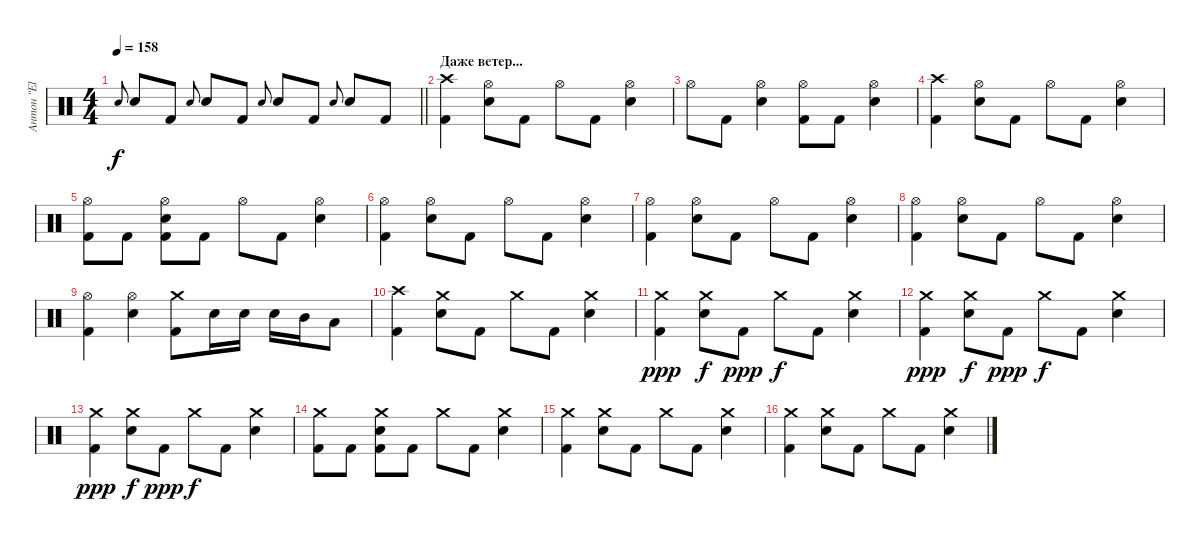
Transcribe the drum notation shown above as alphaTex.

\track ("Антон \"El Bastardo\" Смольянин" "Антон \"El ") {instrument percussion}
\staff {score}
\articulation defaults
\ts (4 4)
\tempo 158
\clef neutral
\barLineRight lightlight
\ks c "Electric Snare (hit)".8{gr onbeat dy f} "Electric Snare (hit)".8 "Kick (hit) 2".8 "Electric Snare (hit)".8{gr onbeat} "Electric Snare (hit)".8 "Kick (hit) 2".8 "Electric Snare (hit)".8{gr onbeat} "Electric Snare (hit)".8 "Kick (hit) 2".8 "Electric Snare (hit)".8{gr onbeat} "Electric Snare (hit)".8 "Kick (hit) 2".8
|
\section ("" "Даже ветер...")
("Crash high (hit)" "Kick (hit) 2").4 ("Hi-Hat (open)" "Electric Snare (hit)").8 "Kick (hit) 2".8 "Hi-Hat (open)".8 "Kick (hit) 2".8 ("Hi-Hat (open)" "Electric Snare (hit)").4 |
"Hi-Hat (open)".8 "Kick (hit) 2".8 ("Hi-Hat (open)" "Electric Snare (hit)").4 ("Hi-Hat (open)" "Kick (hit) 2").8 "Kick (hit) 2".8 ("Hi-Hat (open)" "Electric Snare (hit)").4 |
("Crash high (hit)" "Kick (hit) 2").4 ("Hi-Hat (open)" "Electric Snare (hit)").8 "Kick (hit) 2".8 "Hi-Hat (open)".8 "Kick (hit) 2".8 ("Hi-Hat (open)" "Electric Snare (hit)").4 |
("Hi-Hat (open)" "Kick (hit) 2").8 "Kick (hit) 2".8 ("Hi-Hat (open)" "Electric Snare (hit)" "Kick (hit) 2").8 "Kick (hit) 2".8 "Hi-Hat (open)".8 "Kick (hit) 2".8 ("Hi-Hat (open)" "Electric Snare (hit)").4 |
("Hi-Hat (open)" "Kick (hit) 2").4 ("Hi-Hat (open)" "Electric Snare (hit)").8 "Kick (hit) 2".8 "Hi-Hat (open)".8 "Kick (hit) 2".8 ("Hi-Hat (open)" "Electric Snare (hit)").4 |
("Hi-Hat (open)" "Kick (hit) 2").4 ("Hi-Hat (open)" "Electric Snare (hit)").8 "Kick (hit) 2".8 "Hi-Hat (open)".8 "Kick (hit) 2".8 ("Hi-Hat (open)" "Electric Snare (hit)").4 |
("Hi-Hat (open)" "Kick (hit) 2").4 ("Hi-Hat (open)" "Electric Snare (hit)").8 "Kick (hit) 2".8 "Hi-Hat (open)".8 "Kick (hit) 2".8 ("Hi-Hat (open)" "Electric Snare (hit)").4 |
("Hi-Hat (open)" "Kick (hit) 2").4 ("Hi-Hat (open)" "Electric Snare (hit)").4 ("Crash medium (hit)" "Kick (hit) 2").8 "Electric Snare (hit)".16 "Electric Snare (hit)".16 "Electric Snare (hit)".16 "Mid Tom (hit)".16 "Low Tom (hit)".8 |
("Crash high (hit)" "Kick (hit) 2").4 ("Crash medium (hit)" "Electric Snare (hit)").8 "Kick (hit) 2".8 "Crash medium (hit)".8 "Kick (hit) 2".8 ("Crash medium (hit)" "Electric Snare (hit)").4 |
("Crash medium (hit)" "Kick (hit) 2").4{dy ppp} ("Crash medium (hit)" "Electric Snare (hit)").8{dy f} "Kick (hit) 2".8{dy ppp} "Crash medium (hit)".8{dy f} "Kick (hit) 2".8 ("Crash medium (hit)" "Electric Snare (hit)").4 |
("Crash medium (hit)" "Kick (hit) 2").4{dy ppp} ("Crash medium (hit)" "Electric Snare (hit)").8{dy f} "Kick (hit) 2".8{dy ppp} "Crash medium (hit)".8{dy f} "Kick (hit) 2".8 ("Crash medium (hit)" "Electric Snare (hit)").4 |
("Crash medium (hit)" "Kick (hit) 2").4{dy ppp} ("Crash medium (hit)" "Electric Snare (hit)").8{dy f} "Kick (hit) 2".8{dy ppp} "Crash medium (hit)".8{dy f} "Kick (hit) 2".8 ("Crash medium (hit)" "Electric Snare (hit)").4 |
("Crash medium (hit)" "Kick (hit) 2").8 "Kick (hit) 2".8 ("Crash medium (hit)" "Electric Snare (hit)" "Kick (hit) 2").8 "Kick (hit) 2".8 "Crash medium (hit)".8 "Kick (hit) 2".8 ("Crash medium (hit)" "Electric Snare (hit)").4 |
("Crash medium (hit)" "Kick (hit) 2").4 ("Crash medium (hit)" "Electric Snare (hit)").8 "Kick (hit) 2".8 "Crash medium (hit)".8 "Kick (hit) 2".8 ("Crash medium (hit)" "Electric Snare (hit)").4 |
("Crash medium (hit)" "Kick (hit) 2").4 ("Crash medium (hit)" "Electric Snare (hit)").8 "Kick (hit) 2".8 "Crash medium (hit)".8 "Kick (hit) 2".8 ("Crash medium (hit)" "Electric Snare (hit)").4
